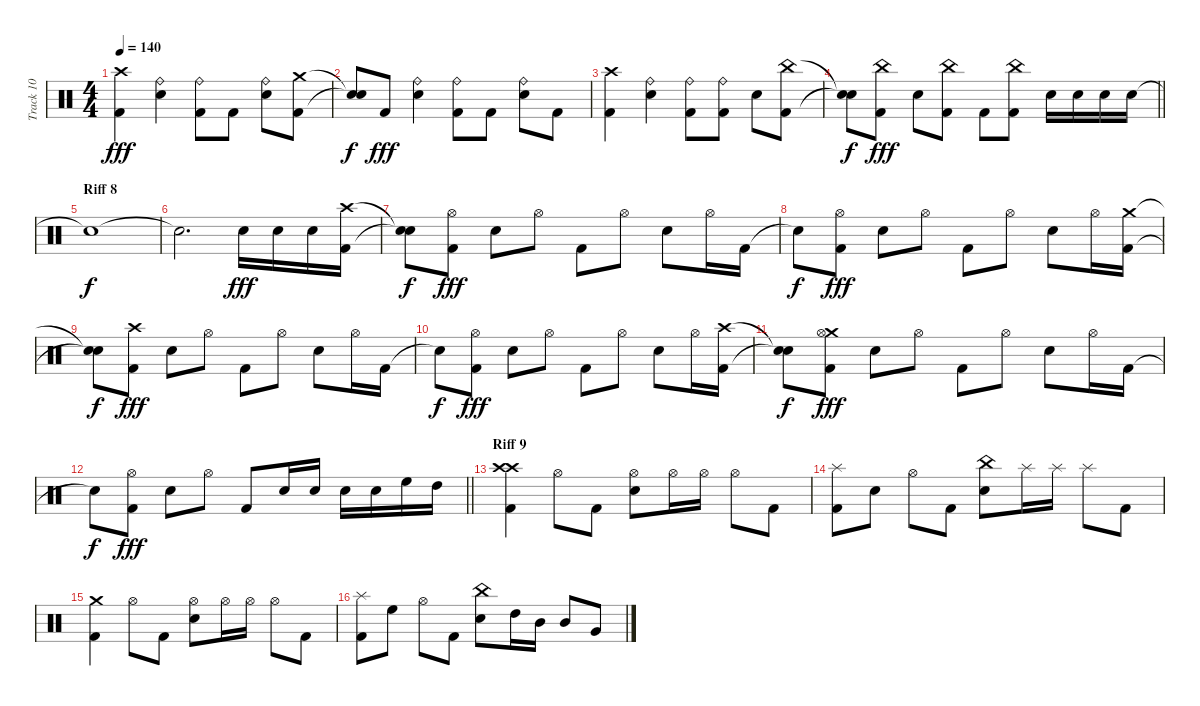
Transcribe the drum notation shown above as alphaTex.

\track ("Track 10" "Track 10") {instrument percussion}
\staff {score}
\articulation defaults
\ts (4 4)
\tempo 140
\clef neutral
\ks c
("Crash high (hit)" "Kick (hit) 2").4{dy fff} ("Snare (hit) 2" "Ride (bell)").4 ("Ride (bell)" "Kick (hit) 2").8 "Kick (hit) 2".8 ("Ride (bell)" "Snare (hit) 2").8 ("Crash medium (hit)" "Kick (hit) 2").8 |
("Snare (hit)"{t} "Snare (hit)"{t}).8{dy f} "Kick (hit) 2".8{dy fff} ("Ride (bell)" "Snare (hit) 2").4 ("Kick (hit) 2" "Ride (bell)").8 "Kick (hit) 2".8 ("Snare (hit) 2" "Ride (bell)").8 "Kick (hit) 2".8 |
("Crash high (hit)" "Kick (hit) 2").4 ("Ride (bell)" "Snare (hit) 2").4 ("Ride (bell)" "Kick (hit) 2").8 ("Kick (hit) 2" "Ride (bell)").8 "Snare (hit) 2".8 ("Kick (hit) 2" "China (hit)").8 |
\barLineRight lightlight
("Snare (hit)"{t} "Snare (hit)"{t}).8{dy f} ("Kick (hit) 2" "China (hit)").8{dy fff} "Snare (hit) 2".8 ("Kick (hit) 2" "China (hit)").8 "Kick (hit) 2".8 ("Kick (hit) 2" "China (hit)").8 "Snare (hit) 2".16 "Snare (hit) 2".16 "Snare (hit) 2".16 "Snare (hit) 2".16 |
\section ("" "Riff 8")
"Snare (hit)"{t}.1{dy f} |
"Snare (hit)"{t}.2{d} "Snare (hit) 2".16{dy fff} "Snare (hit) 2".16 "Snare (hit) 2".16 ("Crash high (hit)" "Kick (hit) 2").16 |
("Snare (hit)"{t} "Snare (hit)"{t}).8{dy f} ("Hi-Hat (open)" "Kick (hit) 2").8{dy fff} "Snare (hit) 2".8 "Hi-Hat (open)".8 "Kick (hit) 2".8 "Hi-Hat (open)".8 "Snare (hit) 2".8 "Hi-Hat (open)".16 "Kick (hit) 2".16 |
"Snare (hit)"{t}.8{dy f} ("Hi-Hat (open)" "Kick (hit) 2").8{dy fff} "Snare (hit) 2".8 "Hi-Hat (open)".8 "Kick (hit) 2".8 "Hi-Hat (open)".8 "Snare (hit) 2".8 "Hi-Hat (open)".16 ("Crash medium (hit)" "Kick (hit) 2").16 |
("Snare (hit)"{t} "Snare (hit)"{t}).8{dy f} ("Crash high (hit)" "Kick (hit) 2").8{dy fff} "Snare (hit) 2".8 "Hi-Hat (open)".8 "Kick (hit) 2".8 "Hi-Hat (open)".8 "Snare (hit) 2".8 "Hi-Hat (open)".16 "Kick (hit) 2".16 |
"Snare (hit)"{t}.8{dy f} ("Hi-Hat (open)" "Kick (hit) 2").8{dy fff} "Snare (hit) 2".8 "Hi-Hat (open)".8 "Kick (hit) 2".8 "Hi-Hat (open)".8 "Snare (hit) 2".8 "Hi-Hat (open)".16 ("Crash high (hit)" "Kick (hit) 2").16 |
("Snare (hit)"{t} "Snare (hit)"{t}).8{dy f} ("Crash medium (hit)" "Kick (hit) 2" "Hi-Hat (open)").8{dy fff} "Snare (hit) 2".8 "Hi-Hat (open)".8 "Kick (hit) 2".8 "Hi-Hat (open)".8 "Snare (hit) 2".8 "Hi-Hat (open)".16 "Kick (hit) 2".16 |
\barLineRight lightlight "Snare (hit)"{t}.8{dy f}
("Hi-Hat (open)" "Kick (hit) 2").8{dy fff} "Snare (hit) 2".8 "Hi-Hat (open)".8 "Kick (hit) 2".8 "Snare (hit) 2".16 "Snare (hit) 2".16 "Snare (hit) 2".16 "Snare (hit) 2".16 "High Floor Tom (hit)".16 "High Tom (hit)".16 |
\section ("" "Riff 9")
("Crash high (hit)" "Kick (hit) 2" "Crash high (hit)").4 "Hi-Hat (open)".8 "Kick (hit) 2".8 ("Hi-Hat (open)" "Snare (hit) 2").8 "Hi-Hat (open)".16 "Hi-Hat (open)".16 "Hi-Hat (open)".8 "Kick (hit) 2".8 |
("Splash (hit)" "Kick (hit) 2").8 "Snare (hit) 2".8 "Hi-Hat (open)".8 "Kick (hit) 2".8 ("China (hit)" "Snare (hit) 2").8 "Splash (hit)".16 "Splash (hit)".16 "Splash (hit)".8 "Kick (hit) 2".8 |
("Crash medium (hit)" "Kick (hit) 2").4 "Hi-Hat (open)".8 "Kick (hit) 2".8 ("Hi-Hat (open)" "Snare (hit) 2").8 "Hi-Hat (open)".16 "Hi-Hat (open)".16 "Hi-Hat (open)".8 "Kick (hit) 2".8 |
("Splash (hit)" "Kick (hit) 2").8 "High Floor Tom (hit)".8 "Hi-Hat (open)".8 "Kick (hit) 2".8 ("China (hit)" "Snare (hit) 2").8 "High Tom (hit)".16 "Mid Tom (hit)".16 "Mid Tom (hit)".8 "Very Low Tom (hit)".8
